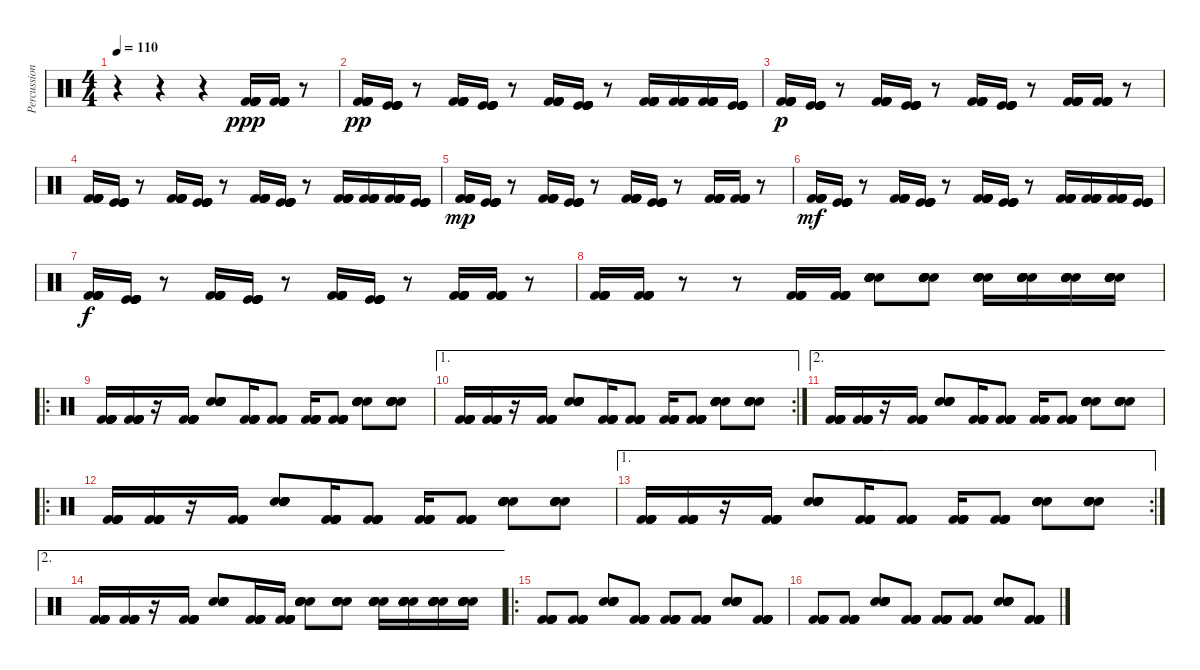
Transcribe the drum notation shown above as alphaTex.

\track ("Percussion 1" "Percussion") {instrument percussion}
\staff {score}
\articulation defaults
\ts (4 4)
\tempo 110
\clef neutral
\ks c
r.4{dy ppp} r.4 r.4 ("Kick (hit) 2" "Kick (hit) 2" "Kick (hit) 2" "Kick (hit) 2" "Kick (hit) 2" "Kick (hit) 2").16 ("Kick (hit) 2" "Kick (hit) 2" "Kick (hit) 2" "Kick (hit) 2" "Kick (hit) 2" "Kick (hit) 2").16 r.8 |
("Kick (hit) 2" "Kick (hit) 2" "Kick (hit) 2" "Kick (hit) 2" "Kick (hit) 2" "Kick (hit) 2").16{dy pp} ("Kick (hit)" "Kick (hit)" "Kick (hit)" "Kick (hit)" "Kick (hit)" "Kick (hit)").16 r.8 ("Kick (hit) 2" "Kick (hit) 2" "Kick (hit) 2" "Kick (hit) 2" "Kick (hit) 2" "Kick (hit) 2").16 ("Kick (hit)" "Kick (hit)" "Kick (hit)" "Kick (hit)" "Kick (hit)" "Kick (hit)").16 r.8 ("Kick (hit) 2" "Kick (hit) 2" "Kick (hit) 2" "Kick (hit) 2" "Kick (hit) 2" "Kick (hit) 2").16 ("Kick (hit)" "Kick (hit)" "Kick (hit)" "Kick (hit)" "Kick (hit)" "Kick (hit)").16 r.8 ("Kick (hit) 2" "Kick (hit) 2" "Kick (hit) 2" "Kick (hit) 2" "Kick (hit) 2" "Kick (hit) 2").16 ("Kick (hit) 2" "Kick (hit) 2" "Kick (hit) 2" "Kick (hit) 2" "Kick (hit) 2" "Kick (hit) 2").16 ("Kick (hit) 2" "Kick (hit) 2" "Kick (hit) 2" "Kick (hit) 2" "Kick (hit) 2" "Kick (hit) 2").16 ("Kick (hit)" "Kick (hit)" "Kick (hit)" "Kick (hit)" "Kick (hit)" "Kick (hit)").16 |
("Kick (hit) 2" "Kick (hit) 2" "Kick (hit) 2" "Kick (hit) 2" "Kick (hit) 2" "Kick (hit) 2").16{dy p} ("Kick (hit)" "Kick (hit)" "Kick (hit)" "Kick (hit)" "Kick (hit)" "Kick (hit)").16 r.8 ("Kick (hit) 2" "Kick (hit) 2" "Kick (hit) 2" "Kick (hit) 2" "Kick (hit) 2" "Kick (hit) 2").16 ("Kick (hit)" "Kick (hit)" "Kick (hit)" "Kick (hit)" "Kick (hit)" "Kick (hit)").16 r.8 ("Kick (hit) 2" "Kick (hit) 2" "Kick (hit) 2" "Kick (hit) 2" "Kick (hit) 2" "Kick (hit) 2").16 ("Kick (hit)" "Kick (hit)" "Kick (hit)" "Kick (hit)" "Kick (hit)" "Kick (hit)").16 r.8 ("Kick (hit) 2" "Kick (hit) 2" "Kick (hit) 2" "Kick (hit) 2" "Kick (hit) 2" "Kick (hit) 2").16 ("Kick (hit) 2" "Kick (hit) 2" "Kick (hit) 2" "Kick (hit) 2" "Kick (hit) 2" "Kick (hit) 2").16 r.8 |
("Kick (hit) 2" "Kick (hit) 2" "Kick (hit) 2" "Kick (hit) 2" "Kick (hit) 2" "Kick (hit) 2").16 ("Kick (hit)" "Kick (hit)" "Kick (hit)" "Kick (hit)" "Kick (hit)" "Kick (hit)").16 r.8 ("Kick (hit) 2" "Kick (hit) 2" "Kick (hit) 2" "Kick (hit) 2" "Kick (hit) 2" "Kick (hit) 2").16 ("Kick (hit)" "Kick (hit)" "Kick (hit)" "Kick (hit)" "Kick (hit)" "Kick (hit)").16 r.8 ("Kick (hit) 2" "Kick (hit) 2" "Kick (hit) 2" "Kick (hit) 2" "Kick (hit) 2" "Kick (hit) 2").16 ("Kick (hit)" "Kick (hit)" "Kick (hit)" "Kick (hit)" "Kick (hit)" "Kick (hit)").16 r.8 ("Kick (hit) 2" "Kick (hit) 2" "Kick (hit) 2" "Kick (hit) 2" "Kick (hit) 2" "Kick (hit) 2").16 ("Kick (hit) 2" "Kick (hit) 2" "Kick (hit) 2" "Kick (hit) 2" "Kick (hit) 2" "Kick (hit) 2").16 ("Kick (hit) 2" "Kick (hit) 2" "Kick (hit) 2" "Kick (hit) 2" "Kick (hit) 2" "Kick (hit) 2").16 ("Kick (hit)" "Kick (hit)" "Kick (hit)" "Kick (hit)" "Kick (hit)" "Kick (hit)").16 |
("Kick (hit) 2" "Kick (hit) 2" "Kick (hit) 2" "Kick (hit) 2" "Kick (hit) 2" "Kick (hit) 2").16{dy mp} ("Kick (hit)" "Kick (hit)" "Kick (hit)" "Kick (hit)" "Kick (hit)" "Kick (hit)").16 r.8 ("Kick (hit) 2" "Kick (hit) 2" "Kick (hit) 2" "Kick (hit) 2" "Kick (hit) 2" "Kick (hit) 2").16 ("Kick (hit)" "Kick (hit)" "Kick (hit)" "Kick (hit)" "Kick (hit)" "Kick (hit)").16 r.8 ("Kick (hit) 2" "Kick (hit) 2" "Kick (hit) 2" "Kick (hit) 2" "Kick (hit) 2" "Kick (hit) 2").16 ("Kick (hit)" "Kick (hit)" "Kick (hit)" "Kick (hit)" "Kick (hit)" "Kick (hit)").16 r.8 ("Kick (hit) 2" "Kick (hit) 2" "Kick (hit) 2" "Kick (hit) 2" "Kick (hit) 2" "Kick (hit) 2").16 ("Kick (hit) 2" "Kick (hit) 2" "Kick (hit) 2" "Kick (hit) 2" "Kick (hit) 2" "Kick (hit) 2").16 r.8 |
("Kick (hit) 2" "Kick (hit) 2" "Kick (hit) 2" "Kick (hit) 2" "Kick (hit) 2" "Kick (hit) 2").16{dy mf} ("Kick (hit)" "Kick (hit)" "Kick (hit)" "Kick (hit)" "Kick (hit)" "Kick (hit)").16 r.8 ("Kick (hit) 2" "Kick (hit) 2" "Kick (hit) 2" "Kick (hit) 2" "Kick (hit) 2" "Kick (hit) 2").16 ("Kick (hit)" "Kick (hit)" "Kick (hit)" "Kick (hit)" "Kick (hit)" "Kick (hit)").16 r.8 ("Kick (hit) 2" "Kick (hit) 2" "Kick (hit) 2" "Kick (hit) 2" "Kick (hit) 2" "Kick (hit) 2").16 ("Kick (hit)" "Kick (hit)" "Kick (hit)" "Kick (hit)" "Kick (hit)" "Kick (hit)").16 r.8 ("Kick (hit) 2" "Kick (hit) 2" "Kick (hit) 2" "Kick (hit) 2" "Kick (hit) 2" "Kick (hit) 2").16 ("Kick (hit) 2" "Kick (hit) 2" "Kick (hit) 2" "Kick (hit) 2" "Kick (hit) 2" "Kick (hit) 2").16 ("Kick (hit) 2" "Kick (hit) 2" "Kick (hit) 2" "Kick (hit) 2" "Kick (hit) 2" "Kick (hit) 2").16 ("Kick (hit)" "Kick (hit)" "Kick (hit)" "Kick (hit)" "Kick (hit)" "Kick (hit)").16 |
("Kick (hit) 2" "Kick (hit) 2" "Kick (hit) 2" "Kick (hit) 2" "Kick (hit) 2" "Kick (hit) 2").16{dy f} ("Kick (hit)" "Kick (hit)" "Kick (hit)" "Kick (hit)" "Kick (hit)" "Kick (hit)").16 r.8 ("Kick (hit) 2" "Kick (hit) 2" "Kick (hit) 2" "Kick (hit) 2" "Kick (hit) 2" "Kick (hit) 2").16 ("Kick (hit)" "Kick (hit)" "Kick (hit)" "Kick (hit)" "Kick (hit)" "Kick (hit)").16 r.8 ("Kick (hit) 2" "Kick (hit) 2" "Kick (hit) 2" "Kick (hit) 2" "Kick (hit) 2" "Kick (hit) 2").16 ("Kick (hit)" "Kick (hit)" "Kick (hit)" "Kick (hit)" "Kick (hit)" "Kick (hit)").16 r.8 ("Kick (hit) 2" "Kick (hit) 2" "Kick (hit) 2" "Kick (hit) 2" "Kick (hit) 2" "Kick (hit) 2").16 ("Kick (hit) 2" "Kick (hit) 2" "Kick (hit) 2" "Kick (hit) 2" "Kick (hit) 2" "Kick (hit) 2").16 r.8 |
("Kick (hit) 2" "Kick (hit) 2" "Kick (hit) 2" "Kick (hit) 2" "Kick (hit) 2" "Kick (hit) 2").16 ("Kick (hit) 2" "Kick (hit) 2" "Kick (hit) 2" "Kick (hit) 2" "Kick (hit) 2" "Kick (hit) 2").16 r.8 r.8 ("Kick (hit) 2" "Kick (hit) 2" "Kick (hit) 2" "Kick (hit) 2" "Kick (hit) 2" "Kick (hit) 2").16 ("Kick (hit) 2" "Kick (hit) 2" "Kick (hit) 2" "Kick (hit) 2" "Kick (hit) 2" "Kick (hit) 2").16 ("Electric Snare (hit)" "Electric Snare (hit)" "Electric Snare (hit)" "Electric Snare (hit)" "Electric Snare (hit)" "Electric Snare (hit)").8 ("Electric Snare (hit)" "Electric Snare (hit)" "Electric Snare (hit)" "Electric Snare (hit)" "Electric Snare (hit)" "Electric Snare (hit)").8 ("Electric Snare (hit)" "Electric Snare (hit)" "Electric Snare (hit)" "Electric Snare (hit)" "Electric Snare (hit)" "Electric Snare (hit)").16 ("Electric Snare (hit)" "Electric Snare (hit)" "Electric Snare (hit)" "Electric Snare (hit)" "Electric Snare (hit)" "Electric Snare (hit)").16 ("Electric Snare (hit)" "Electric Snare (hit)" "Electric Snare (hit)" "Electric Snare (hit)" "Electric Snare (hit)" "Electric Snare (hit)").16 ("Electric Snare (hit)" "Electric Snare (hit)" "Electric Snare (hit)" "Electric Snare (hit)" "Electric Snare (hit)" "Electric Snare (hit)").16 |
\ro
("Kick (hit) 2" "Kick (hit) 2" "Kick (hit) 2" "Kick (hit) 2" "Kick (hit) 2" "Kick (hit) 2").16 ("Kick (hit) 2" "Kick (hit) 2" "Kick (hit) 2" "Kick (hit) 2" "Kick (hit) 2" "Kick (hit) 2").16 r.16 ("Kick (hit) 2" "Kick (hit) 2" "Kick (hit) 2" "Kick (hit) 2" "Kick (hit) 2" "Kick (hit) 2").16 ("Electric Snare (hit)" "Electric Snare (hit)" "Electric Snare (hit)" "Electric Snare (hit)" "Electric Snare (hit)" "Electric Snare (hit)").8 ("Kick (hit) 2" "Kick (hit) 2" "Kick (hit) 2" "Kick (hit) 2" "Kick (hit) 2" "Kick (hit) 2").16 ("Kick (hit) 2" "Kick (hit) 2" "Kick (hit) 2" "Kick (hit) 2" "Kick (hit) 2" "Kick (hit) 2").8 ("Kick (hit) 2" "Kick (hit) 2" "Kick (hit) 2" "Kick (hit) 2" "Kick (hit) 2" "Kick (hit) 2").16 ("Kick (hit) 2" "Kick (hit) 2" "Kick (hit) 2" "Kick (hit) 2" "Kick (hit) 2" "Kick (hit) 2").8 ("Electric Snare (hit)" "Electric Snare (hit)" "Electric Snare (hit)" "Electric Snare (hit)" "Electric Snare (hit)" "Electric Snare (hit)").8 ("Electric Snare (hit)" "Electric Snare (hit)" "Electric Snare (hit)" "Electric Snare (hit)" "Electric Snare (hit)" "Electric Snare (hit)").8 |
\ae 1
\rc 2
("Kick (hit) 2" "Kick (hit) 2" "Kick (hit) 2" "Kick (hit) 2" "Kick (hit) 2" "Kick (hit) 2").16 ("Kick (hit) 2" "Kick (hit) 2" "Kick (hit) 2" "Kick (hit) 2" "Kick (hit) 2" "Kick (hit) 2").16 r.16 ("Kick (hit) 2" "Kick (hit) 2" "Kick (hit) 2" "Kick (hit) 2" "Kick (hit) 2" "Kick (hit) 2").16 ("Electric Snare (hit)" "Electric Snare (hit)" "Electric Snare (hit)" "Electric Snare (hit)" "Electric Snare (hit)" "Electric Snare (hit)").8 ("Kick (hit) 2" "Kick (hit) 2" "Kick (hit) 2" "Kick (hit) 2" "Kick (hit) 2" "Kick (hit) 2").16 ("Kick (hit) 2" "Kick (hit) 2" "Kick (hit) 2" "Kick (hit) 2" "Kick (hit) 2" "Kick (hit) 2").8 ("Kick (hit) 2" "Kick (hit) 2" "Kick (hit) 2" "Kick (hit) 2" "Kick (hit) 2" "Kick (hit) 2").16 ("Kick (hit) 2" "Kick (hit) 2" "Kick (hit) 2" "Kick (hit) 2" "Kick (hit) 2" "Kick (hit) 2").8 ("Electric Snare (hit)" "Electric Snare (hit)" "Electric Snare (hit)" "Electric Snare (hit)" "Electric Snare (hit)" "Electric Snare (hit)").8 ("Electric Snare (hit)" "Electric Snare (hit)" "Electric Snare (hit)" "Electric Snare (hit)" "Electric Snare (hit)" "Electric Snare (hit)").8 |
\ae 2
("Kick (hit) 2" "Kick (hit) 2" "Kick (hit) 2" "Kick (hit) 2" "Kick (hit) 2" "Kick (hit) 2").16 ("Kick (hit) 2" "Kick (hit) 2" "Kick (hit) 2" "Kick (hit) 2" "Kick (hit) 2" "Kick (hit) 2").16 r.16 ("Kick (hit) 2" "Kick (hit) 2" "Kick (hit) 2" "Kick (hit) 2" "Kick (hit) 2" "Kick (hit) 2").16 ("Electric Snare (hit)" "Electric Snare (hit)" "Electric Snare (hit)" "Electric Snare (hit)" "Electric Snare (hit)" "Electric Snare (hit)").8 ("Kick (hit) 2" "Kick (hit) 2" "Kick (hit) 2" "Kick (hit) 2" "Kick (hit) 2" "Kick (hit) 2").16 ("Kick (hit) 2" "Kick (hit) 2" "Kick (hit) 2" "Kick (hit) 2" "Kick (hit) 2" "Kick (hit) 2").8 ("Kick (hit) 2" "Kick (hit) 2" "Kick (hit) 2" "Kick (hit) 2" "Kick (hit) 2" "Kick (hit) 2").16 ("Kick (hit) 2" "Kick (hit) 2" "Kick (hit) 2" "Kick (hit) 2" "Kick (hit) 2" "Kick (hit) 2").8 ("Electric Snare (hit)" "Electric Snare (hit)" "Electric Snare (hit)" "Electric Snare (hit)" "Electric Snare (hit)" "Electric Snare (hit)").8 ("Electric Snare (hit)" "Electric Snare (hit)" "Electric Snare (hit)" "Electric Snare (hit)" "Electric Snare (hit)" "Electric Snare (hit)").8 |
\ro
("Kick (hit) 2" "Kick (hit) 2" "Kick (hit) 2" "Kick (hit) 2" "Kick (hit) 2" "Kick (hit) 2").16 ("Kick (hit) 2" "Kick (hit) 2" "Kick (hit) 2" "Kick (hit) 2" "Kick (hit) 2" "Kick (hit) 2").16 r.16 ("Kick (hit) 2" "Kick (hit) 2" "Kick (hit) 2" "Kick (hit) 2" "Kick (hit) 2" "Kick (hit) 2").16 ("Electric Snare (hit)" "Electric Snare (hit)" "Electric Snare (hit)" "Electric Snare (hit)" "Electric Snare (hit)" "Electric Snare (hit)").8 ("Kick (hit) 2" "Kick (hit) 2" "Kick (hit) 2" "Kick (hit) 2" "Kick (hit) 2" "Kick (hit) 2").16 ("Kick (hit) 2" "Kick (hit) 2" "Kick (hit) 2" "Kick (hit) 2" "Kick (hit) 2" "Kick (hit) 2").8 ("Kick (hit) 2" "Kick (hit) 2" "Kick (hit) 2" "Kick (hit) 2" "Kick (hit) 2" "Kick (hit) 2").16 ("Kick (hit) 2" "Kick (hit) 2" "Kick (hit) 2" "Kick (hit) 2" "Kick (hit) 2" "Kick (hit) 2").8 ("Electric Snare (hit)" "Electric Snare (hit)" "Electric Snare (hit)" "Electric Snare (hit)" "Electric Snare (hit)" "Electric Snare (hit)").8 ("Electric Snare (hit)" "Electric Snare (hit)" "Electric Snare (hit)" "Electric Snare (hit)" "Electric Snare (hit)" "Electric Snare (hit)").8 |
\ae 1
\rc 2
("Kick (hit) 2" "Kick (hit) 2" "Kick (hit) 2" "Kick (hit) 2" "Kick (hit) 2" "Kick (hit) 2").16 ("Kick (hit) 2" "Kick (hit) 2" "Kick (hit) 2" "Kick (hit) 2" "Kick (hit) 2" "Kick (hit) 2").16 r.16 ("Kick (hit) 2" "Kick (hit) 2" "Kick (hit) 2" "Kick (hit) 2" "Kick (hit) 2" "Kick (hit) 2").16 ("Electric Snare (hit)" "Electric Snare (hit)" "Electric Snare (hit)" "Electric Snare (hit)" "Electric Snare (hit)" "Electric Snare (hit)").8 ("Kick (hit) 2" "Kick (hit) 2" "Kick (hit) 2" "Kick (hit) 2" "Kick (hit) 2" "Kick (hit) 2").16 ("Kick (hit) 2" "Kick (hit) 2" "Kick (hit) 2" "Kick (hit) 2" "Kick (hit) 2" "Kick (hit) 2").8 ("Kick (hit) 2" "Kick (hit) 2" "Kick (hit) 2" "Kick (hit) 2" "Kick (hit) 2" "Kick (hit) 2").16 ("Kick (hit) 2" "Kick (hit) 2" "Kick (hit) 2" "Kick (hit) 2" "Kick (hit) 2" "Kick (hit) 2").8 ("Electric Snare (hit)" "Electric Snare (hit)" "Electric Snare (hit)" "Electric Snare (hit)" "Electric Snare (hit)" "Electric Snare (hit)").8 ("Electric Snare (hit)" "Electric Snare (hit)" "Electric Snare (hit)" "Electric Snare (hit)" "Electric Snare (hit)" "Electric Snare (hit)").8 |
\ae 2
("Kick (hit) 2" "Kick (hit) 2" "Kick (hit) 2" "Kick (hit) 2" "Kick (hit) 2" "Kick (hit) 2").16 ("Kick (hit) 2" "Kick (hit) 2" "Kick (hit) 2" "Kick (hit) 2" "Kick (hit) 2" "Kick (hit) 2").16 r.16 ("Kick (hit) 2" "Kick (hit) 2" "Kick (hit) 2" "Kick (hit) 2" "Kick (hit) 2" "Kick (hit) 2").16 ("Electric Snare (hit)" "Electric Snare (hit)" "Electric Snare (hit)" "Electric Snare (hit)" "Electric Snare (hit)" "Electric Snare (hit)").8 ("Kick (hit) 2" "Kick (hit) 2" "Kick (hit) 2" "Kick (hit) 2" "Kick (hit) 2" "Kick (hit) 2").16 ("Kick (hit) 2" "Kick (hit) 2" "Kick (hit) 2" "Kick (hit) 2" "Kick (hit) 2" "Kick (hit) 2").16 ("Electric Snare (hit)" "Electric Snare (hit)" "Electric Snare (hit)" "Electric Snare (hit)" "Electric Snare (hit)" "Electric Snare (hit)").8 ("Electric Snare (hit)" "Electric Snare (hit)" "Electric Snare (hit)" "Electric Snare (hit)" "Electric Snare (hit)" "Electric Snare (hit)").8 ("Electric Snare (hit)" "Electric Snare (hit)" "Electric Snare (hit)" "Electric Snare (hit)" "Electric Snare (hit)" "Electric Snare (hit)").16 ("Electric Snare (hit)" "Electric Snare (hit)" "Electric Snare (hit)" "Electric Snare (hit)" "Electric Snare (hit)" "Electric Snare (hit)").16 ("Electric Snare (hit)" "Electric Snare (hit)" "Electric Snare (hit)" "Electric Snare (hit)" "Electric Snare (hit)" "Electric Snare (hit)").16 ("Electric Snare (hit)" "Electric Snare (hit)" "Electric Snare (hit)" "Electric Snare (hit)" "Electric Snare (hit)" "Electric Snare (hit)").16 |
\ro
("Kick (hit) 2" "Kick (hit) 2" "Kick (hit) 2" "Kick (hit) 2" "Kick (hit) 2" "Kick (hit) 2").8 ("Kick (hit) 2" "Kick (hit) 2" "Kick (hit) 2" "Kick (hit) 2" "Kick (hit) 2" "Kick (hit) 2").8 ("Electric Snare (hit)" "Electric Snare (hit)" "Electric Snare (hit)" "Electric Snare (hit)" "Electric Snare (hit)" "Electric Snare (hit)").8 ("Kick (hit) 2" "Kick (hit) 2" "Kick (hit) 2" "Kick (hit) 2" "Kick (hit) 2" "Kick (hit) 2").8 ("Kick (hit) 2" "Kick (hit) 2" "Kick (hit) 2" "Kick (hit) 2" "Kick (hit) 2" "Kick (hit) 2").8 ("Kick (hit) 2" "Kick (hit) 2" "Kick (hit) 2" "Kick (hit) 2" "Kick (hit) 2" "Kick (hit) 2").8 ("Electric Snare (hit)" "Electric Snare (hit)" "Electric Snare (hit)" "Electric Snare (hit)" "Electric Snare (hit)" "Electric Snare (hit)").8 ("Kick (hit) 2" "Kick (hit) 2" "Kick (hit) 2" "Kick (hit) 2" "Kick (hit) 2" "Kick (hit) 2").8 |
("Kick (hit) 2" "Kick (hit) 2" "Kick (hit) 2" "Kick (hit) 2" "Kick (hit) 2" "Kick (hit) 2").8 ("Kick (hit) 2" "Kick (hit) 2" "Kick (hit) 2" "Kick (hit) 2" "Kick (hit) 2" "Kick (hit) 2").8 ("Electric Snare (hit)" "Electric Snare (hit)" "Electric Snare (hit)" "Electric Snare (hit)" "Electric Snare (hit)" "Electric Snare (hit)").8 ("Kick (hit) 2" "Kick (hit) 2" "Kick (hit) 2" "Kick (hit) 2" "Kick (hit) 2" "Kick (hit) 2").8 ("Kick (hit) 2" "Kick (hit) 2" "Kick (hit) 2" "Kick (hit) 2" "Kick (hit) 2" "Kick (hit) 2").8 ("Kick (hit) 2" "Kick (hit) 2" "Kick (hit) 2" "Kick (hit) 2" "Kick (hit) 2" "Kick (hit) 2").8 ("Electric Snare (hit)" "Electric Snare (hit)" "Electric Snare (hit)" "Electric Snare (hit)" "Electric Snare (hit)" "Electric Snare (hit)").8 ("Kick (hit) 2" "Kick (hit) 2" "Kick (hit) 2" "Kick (hit) 2" "Kick (hit) 2" "Kick (hit) 2").8
